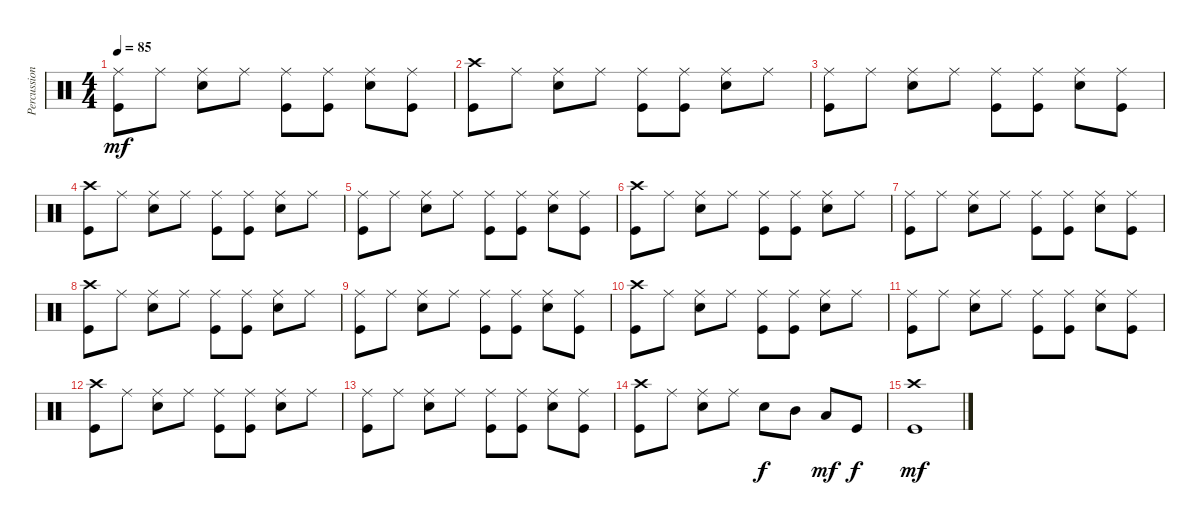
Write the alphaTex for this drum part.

\track ("Percussion" "Percussion") {instrument percussion}
\staff {score}
\articulation defaults
\ts (4 4)
\tempo 85
\clef neutral
\ks c
("Ride (middle)" "Kick (hit)").8{dy mf} "Ride (middle)".8 ("Ride (middle)" "Snare (hit) 2").8 "Ride (middle)".8 ("Ride (middle)" "Kick (hit)").8 ("Ride (middle)" "Kick (hit)").8 ("Ride (middle)" "Snare (hit) 2").8 ("Ride (middle)" "Kick (hit)").8 |
("Crash high (hit)" "Kick (hit)").8 "Ride (middle)".8 ("Ride (middle)" "Snare (hit) 2").8 "Ride (middle)".8 ("Ride (middle)" "Kick (hit)").8 ("Ride (middle)" "Kick (hit)").8 ("Ride (middle)" "Snare (hit) 2").8 "Ride (middle)".8 |
("Ride (middle)" "Kick (hit)").8 "Ride (middle)".8 ("Ride (middle)" "Snare (hit) 2").8 "Ride (middle)".8 ("Ride (middle)" "Kick (hit)").8 ("Ride (middle)" "Kick (hit)").8 ("Ride (middle)" "Snare (hit) 2").8 ("Ride (middle)" "Kick (hit)").8 |
("Crash high (hit)" "Kick (hit)").8 "Ride (middle)".8 ("Ride (middle)" "Snare (hit) 2").8 "Ride (middle)".8 ("Ride (middle)" "Kick (hit)").8 ("Ride (middle)" "Kick (hit)").8 ("Ride (middle)" "Snare (hit) 2").8 "Ride (middle)".8 |
("Ride (middle)" "Kick (hit)").8 "Ride (middle)".8 ("Ride (middle)" "Snare (hit) 2").8 "Ride (middle)".8 ("Ride (middle)" "Kick (hit)").8 ("Ride (middle)" "Kick (hit)").8 ("Ride (middle)" "Snare (hit) 2").8 ("Ride (middle)" "Kick (hit)").8 |
("Crash high (hit)" "Kick (hit)").8 "Ride (middle)".8 ("Ride (middle)" "Snare (hit) 2").8 "Ride (middle)".8 ("Ride (middle)" "Kick (hit)").8 ("Ride (middle)" "Kick (hit)").8 ("Ride (middle)" "Snare (hit) 2").8 "Ride (middle)".8 |
("Ride (middle)" "Kick (hit)").8 "Ride (middle)".8 ("Ride (middle)" "Snare (hit) 2").8 "Ride (middle)".8 ("Ride (middle)" "Kick (hit)").8 ("Ride (middle)" "Kick (hit)").8 ("Ride (middle)" "Snare (hit) 2").8 ("Ride (middle)" "Kick (hit)").8 |
("Crash high (hit)" "Kick (hit)").8 "Ride (middle)".8 ("Ride (middle)" "Snare (hit) 2").8 "Ride (middle)".8 ("Ride (middle)" "Kick (hit)").8 ("Ride (middle)" "Kick (hit)").8 ("Ride (middle)" "Snare (hit) 2").8 "Ride (middle)".8 |
("Ride (middle)" "Kick (hit)").8 "Ride (middle)".8 ("Ride (middle)" "Snare (hit) 2").8 "Ride (middle)".8 ("Ride (middle)" "Kick (hit)").8 ("Ride (middle)" "Kick (hit)").8 ("Ride (middle)" "Snare (hit) 2").8 ("Ride (middle)" "Kick (hit)").8 |
("Crash high (hit)" "Kick (hit)").8 "Ride (middle)".8 ("Ride (middle)" "Snare (hit) 2").8 "Ride (middle)".8 ("Ride (middle)" "Kick (hit)").8 ("Ride (middle)" "Kick (hit)").8 ("Ride (middle)" "Snare (hit) 2").8 "Ride (middle)".8 |
("Ride (middle)" "Kick (hit)").8 "Ride (middle)".8 ("Ride (middle)" "Snare (hit) 2").8 "Ride (middle)".8 ("Ride (middle)" "Kick (hit)").8 ("Ride (middle)" "Kick (hit)").8 ("Ride (middle)" "Snare (hit) 2").8 ("Ride (middle)" "Kick (hit)").8 |
("Crash high (hit)" "Kick (hit)").8 "Ride (middle)".8 ("Ride (middle)" "Snare (hit) 2").8 "Ride (middle)".8 ("Ride (middle)" "Kick (hit)").8 ("Ride (middle)" "Kick (hit)").8 ("Ride (middle)" "Snare (hit) 2").8 "Ride (middle)".8 |
("Ride (middle)" "Kick (hit)").8 "Ride (middle)".8 ("Ride (middle)" "Snare (hit) 2").8 "Ride (middle)".8 ("Ride (middle)" "Kick (hit)").8 ("Ride (middle)" "Kick (hit)").8 ("Ride (middle)" "Snare (hit) 2").8 ("Ride (middle)" "Kick (hit)").8 |
("Crash high (hit)" "Kick (hit)").8 "Ride (middle)".8 ("Ride (middle)" "Snare (hit) 2").8 "Ride (middle)".8 "Snare (hit) 2".8{dy f} "Mid Tom (hit)".8 "Low Tom (hit)".8{dy mf} "Kick (hit)".8{dy f} |
("Crash high (hit)" "Kick (hit)").1{dy mf}
